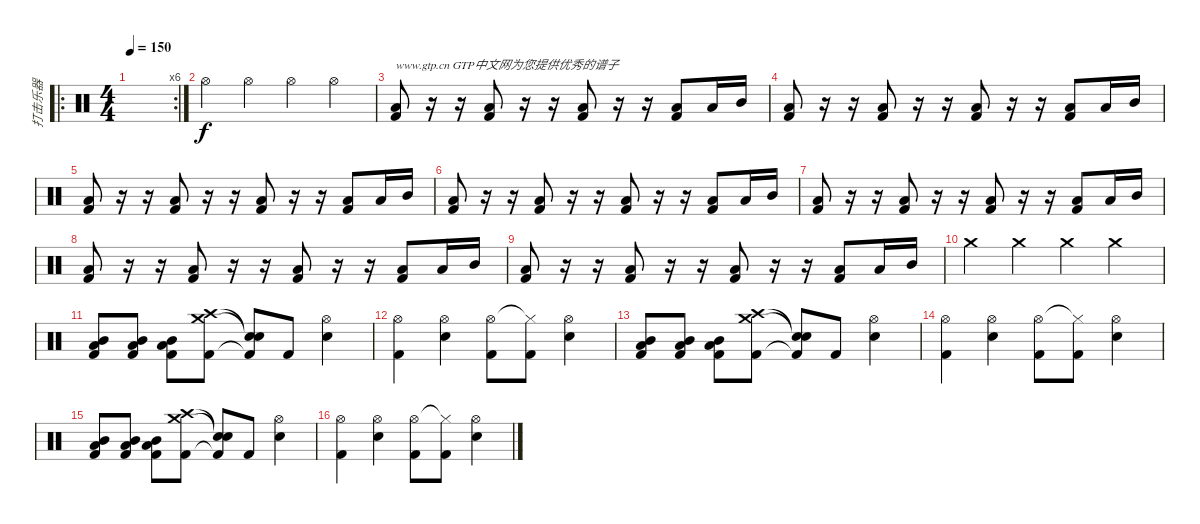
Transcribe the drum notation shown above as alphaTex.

\track ("打击乐器" "打击乐器") {instrument percussion}
\staff {score}
\articulation defaults
\ro
\rc 6
\ts (4 4)
\tempo 150
\clef neutral
\ks c
|
"Hi-Hat (open)".4 "Hi-Hat (open)".4 "Hi-Hat (open)".4 "Hi-Hat (open)".4 |
("Low Tom (hit)" "Kick (hit) 2").8{txt "www.gtp.cn GTP中文网为您提供优秀的谱子"} r.16 r.16 ("Low Tom (hit)" "Kick (hit) 2").8 r.16 r.16 ("Low Tom (hit)" "Kick (hit) 2").8 r.16 r.16 ("Low Tom (hit)" "Kick (hit) 2").8 "Low Tom (hit)".16 "Mid Tom (hit)".16 |
("Low Tom (hit)" "Kick (hit) 2").8 r.16 r.16 ("Low Tom (hit)" "Kick (hit) 2").8 r.16 r.16 ("Low Tom (hit)" "Kick (hit) 2").8 r.16 r.16 ("Low Tom (hit)" "Kick (hit) 2").8 "Low Tom (hit)".16 "Mid Tom (hit)".16 |
("Low Tom (hit)" "Kick (hit) 2").8 r.16 r.16 ("Low Tom (hit)" "Kick (hit) 2").8 r.16 r.16 ("Low Tom (hit)" "Kick (hit) 2").8 r.16 r.16 ("Low Tom (hit)" "Kick (hit) 2").8 "Low Tom (hit)".16 "Mid Tom (hit)".16 |
("Low Tom (hit)" "Kick (hit) 2").8 r.16 r.16 ("Low Tom (hit)" "Kick (hit) 2").8 r.16 r.16 ("Low Tom (hit)" "Kick (hit) 2").8 r.16 r.16 ("Low Tom (hit)" "Kick (hit) 2").8 "Low Tom (hit)".16 "Mid Tom (hit)".16 |
("Low Tom (hit)" "Kick (hit) 2").8 r.16 r.16 ("Low Tom (hit)" "Kick (hit) 2").8 r.16 r.16 ("Low Tom (hit)" "Kick (hit) 2").8 r.16 r.16 ("Low Tom (hit)" "Kick (hit) 2").8 "Low Tom (hit)".16 "Mid Tom (hit)".16 |
("Low Tom (hit)" "Kick (hit) 2").8 r.16 r.16 ("Low Tom (hit)" "Kick (hit) 2").8 r.16 r.16 ("Low Tom (hit)" "Kick (hit) 2").8 r.16 r.16 ("Low Tom (hit)" "Kick (hit) 2").8 "Low Tom (hit)".16 "Mid Tom (hit)".16 |
("Low Tom (hit)" "Kick (hit) 2").8 r.16 r.16 ("Low Tom (hit)" "Kick (hit) 2").8 r.16 r.16 ("Low Tom (hit)" "Kick (hit) 2").8 r.16 r.16 ("Low Tom (hit)" "Kick (hit) 2").8 "Low Tom (hit)".16 "Mid Tom (hit)".16 |
"Crash medium (hit)".4 "Crash medium (hit)".4 "Crash medium (hit)".4 "Crash medium (hit)".4 |
("Mid Tom (hit)" "Low Tom (hit)" "Kick (hit) 2").8 ("Mid Tom (hit)" "Low Tom (hit)" "Kick (hit) 2").8 ("Mid Tom (hit)" "Low Tom (hit)" "Kick (hit) 2").8 ("Crash high (hit)" "Crash medium (hit)" "Kick (hit) 2").8 ("Snare (hit)"{t} "Snare (hit)"{t} "Kick (hit) 2"{t}).8 "Kick (hit) 2".8 ("Hi-Hat (open)" "Snare (hit) 2").4 |
("Hi-Hat (open)" "Kick (hit) 2").4 ("Hi-Hat (open)" "Snare (hit) 2").4 ("Hi-Hat (open)" "Kick (hit) 2").8 ("Hi-Hat (closed)"{t} "Kick (hit) 2").8 ("Hi-Hat (open)" "Snare (hit) 2").4 |
("Mid Tom (hit)" "Low Tom (hit)" "Kick (hit) 2").8 ("Mid Tom (hit)" "Low Tom (hit)" "Kick (hit) 2").8 ("Mid Tom (hit)" "Low Tom (hit)" "Kick (hit) 2").8 ("Crash high (hit)" "Crash medium (hit)" "Kick (hit) 2").8 ("Snare (hit)"{t} "Snare (hit)"{t} "Kick (hit) 2"{t}).8 "Kick (hit) 2".8 ("Hi-Hat (open)" "Snare (hit) 2").4 |
("Hi-Hat (open)" "Kick (hit) 2").4 ("Hi-Hat (open)" "Snare (hit) 2").4 ("Hi-Hat (open)" "Kick (hit) 2").8 ("Hi-Hat (closed)"{t} "Kick (hit) 2").8 ("Hi-Hat (open)" "Snare (hit) 2").4 |
("Mid Tom (hit)" "Low Tom (hit)" "Kick (hit) 2").8 ("Mid Tom (hit)" "Low Tom (hit)" "Kick (hit) 2").8 ("Mid Tom (hit)" "Low Tom (hit)" "Kick (hit) 2").8 ("Crash high (hit)" "Crash medium (hit)" "Kick (hit) 2").8 ("Snare (hit)"{t} "Snare (hit)"{t} "Kick (hit) 2"{t}).8 "Kick (hit) 2".8 ("Hi-Hat (open)" "Snare (hit) 2").4 |
("Hi-Hat (open)" "Kick (hit) 2").4 ("Hi-Hat (open)" "Snare (hit) 2").4 ("Hi-Hat (open)" "Kick (hit) 2").8 ("Hi-Hat (closed)"{t} "Kick (hit) 2").8 ("Hi-Hat (open)" "Snare (hit) 2").4
